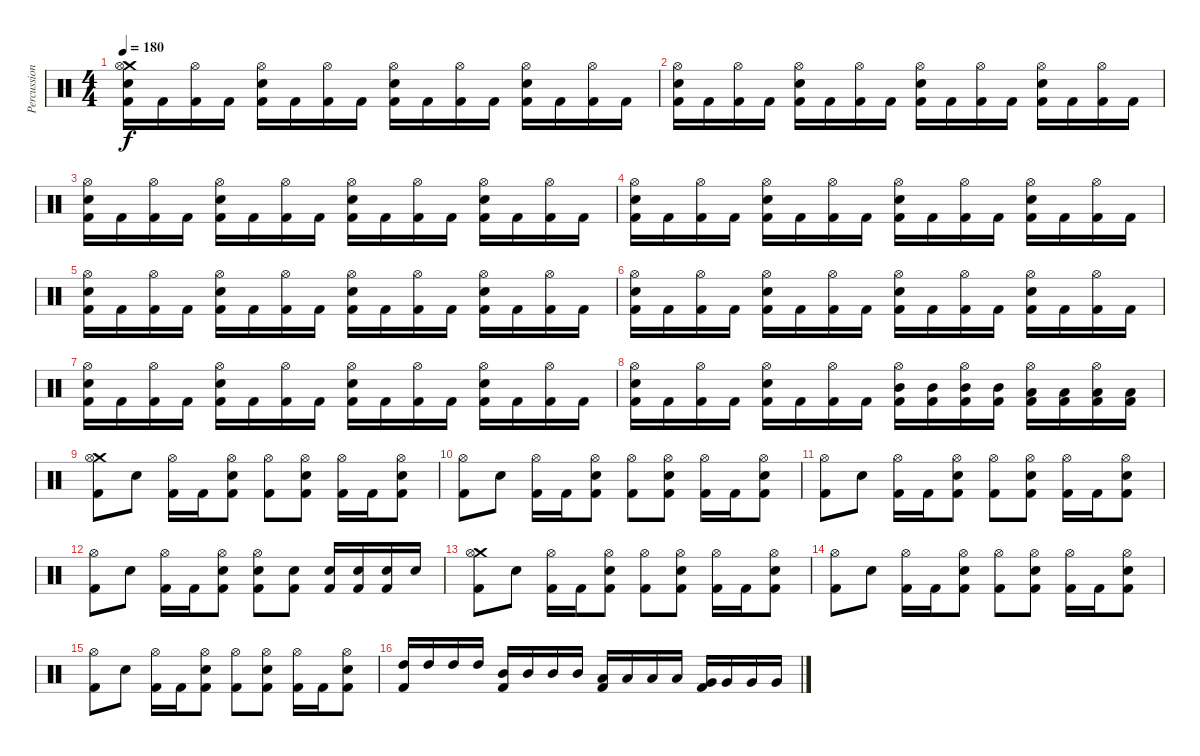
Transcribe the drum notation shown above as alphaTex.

\track ("Percussion" "Percussion") {instrument percussion}
\staff {score}
\articulation defaults
\ts (4 4)
\tempo 180
\clef neutral
\ks c
("Crash medium (hit)" "Hi-Hat (open)" "Snare (hit) 2" "Kick (hit) 2").16{dy f} "Kick (hit) 2".16 ("Hi-Hat (open)" "Kick (hit) 2").16 "Kick (hit) 2".16 ("Hi-Hat (open)" "Snare (hit) 2" "Kick (hit) 2").16 "Kick (hit) 2".16 ("Hi-Hat (open)" "Kick (hit) 2").16 "Kick (hit) 2".16 ("Hi-Hat (open)" "Snare (hit) 2" "Kick (hit) 2").16 "Kick (hit) 2".16 ("Hi-Hat (open)" "Kick (hit) 2").16 "Kick (hit) 2".16 ("Hi-Hat (open)" "Snare (hit) 2" "Kick (hit) 2").16 "Kick (hit) 2".16 ("Hi-Hat (open)" "Kick (hit) 2").16 "Kick (hit) 2".16 |
("Hi-Hat (open)" "Snare (hit) 2" "Kick (hit) 2").16 "Kick (hit) 2".16 ("Hi-Hat (open)" "Kick (hit) 2").16 "Kick (hit) 2".16 ("Hi-Hat (open)" "Snare (hit) 2" "Kick (hit) 2").16 "Kick (hit) 2".16 ("Hi-Hat (open)" "Kick (hit) 2").16 "Kick (hit) 2".16 ("Hi-Hat (open)" "Snare (hit) 2" "Kick (hit) 2").16 "Kick (hit) 2".16 ("Hi-Hat (open)" "Kick (hit) 2").16 "Kick (hit) 2".16 ("Hi-Hat (open)" "Snare (hit) 2" "Kick (hit) 2").16 "Kick (hit) 2".16 ("Hi-Hat (open)" "Kick (hit) 2").16 "Kick (hit) 2".16 |
("Hi-Hat (open)" "Snare (hit) 2" "Kick (hit) 2").16 "Kick (hit) 2".16 ("Hi-Hat (open)" "Kick (hit) 2").16 "Kick (hit) 2".16 ("Hi-Hat (open)" "Snare (hit) 2" "Kick (hit) 2").16 "Kick (hit) 2".16 ("Hi-Hat (open)" "Kick (hit) 2").16 "Kick (hit) 2".16 ("Hi-Hat (open)" "Snare (hit) 2" "Kick (hit) 2").16 "Kick (hit) 2".16 ("Hi-Hat (open)" "Kick (hit) 2").16 "Kick (hit) 2".16 ("Hi-Hat (open)" "Snare (hit) 2" "Kick (hit) 2").16 "Kick (hit) 2".16 ("Hi-Hat (open)" "Kick (hit) 2").16 "Kick (hit) 2".16 |
("Hi-Hat (open)" "Snare (hit) 2" "Kick (hit) 2").16 "Kick (hit) 2".16 ("Hi-Hat (open)" "Kick (hit) 2").16 "Kick (hit) 2".16 ("Hi-Hat (open)" "Snare (hit) 2" "Kick (hit) 2").16 "Kick (hit) 2".16 ("Hi-Hat (open)" "Kick (hit) 2").16 "Kick (hit) 2".16 ("Hi-Hat (open)" "Snare (hit) 2" "Kick (hit) 2").16 "Kick (hit) 2".16 ("Hi-Hat (open)" "Kick (hit) 2").16 "Kick (hit) 2".16 ("Hi-Hat (open)" "Snare (hit) 2" "Kick (hit) 2").16 "Kick (hit) 2".16 ("Hi-Hat (open)" "Kick (hit) 2").16 "Kick (hit) 2".16 |
("Hi-Hat (open)" "Snare (hit) 2" "Kick (hit) 2").16 "Kick (hit) 2".16 ("Hi-Hat (open)" "Kick (hit) 2").16 "Kick (hit) 2".16 ("Hi-Hat (open)" "Snare (hit) 2" "Kick (hit) 2").16 "Kick (hit) 2".16 ("Hi-Hat (open)" "Kick (hit) 2").16 "Kick (hit) 2".16 ("Hi-Hat (open)" "Snare (hit) 2" "Kick (hit) 2").16 "Kick (hit) 2".16 ("Hi-Hat (open)" "Kick (hit) 2").16 "Kick (hit) 2".16 ("Hi-Hat (open)" "Snare (hit) 2" "Kick (hit) 2").16 "Kick (hit) 2".16 ("Hi-Hat (open)" "Kick (hit) 2").16 "Kick (hit) 2".16 |
("Hi-Hat (open)" "Snare (hit) 2" "Kick (hit) 2").16 "Kick (hit) 2".16 ("Hi-Hat (open)" "Kick (hit) 2").16 "Kick (hit) 2".16 ("Hi-Hat (open)" "Snare (hit) 2" "Kick (hit) 2").16 "Kick (hit) 2".16 ("Hi-Hat (open)" "Kick (hit) 2").16 "Kick (hit) 2".16 ("Hi-Hat (open)" "Snare (hit) 2" "Kick (hit) 2").16 "Kick (hit) 2".16 ("Hi-Hat (open)" "Kick (hit) 2").16 "Kick (hit) 2".16 ("Hi-Hat (open)" "Snare (hit) 2" "Kick (hit) 2").16 "Kick (hit) 2".16 ("Hi-Hat (open)" "Kick (hit) 2").16 "Kick (hit) 2".16 |
("Hi-Hat (open)" "Snare (hit) 2" "Kick (hit) 2").16 "Kick (hit) 2".16 ("Hi-Hat (open)" "Kick (hit) 2").16 "Kick (hit) 2".16 ("Hi-Hat (open)" "Snare (hit) 2" "Kick (hit) 2").16 "Kick (hit) 2".16 ("Hi-Hat (open)" "Kick (hit) 2").16 "Kick (hit) 2".16 ("Hi-Hat (open)" "Snare (hit) 2" "Kick (hit) 2").16 "Kick (hit) 2".16 ("Hi-Hat (open)" "Kick (hit) 2").16 "Kick (hit) 2".16 ("Hi-Hat (open)" "Snare (hit) 2" "Kick (hit) 2").16 "Kick (hit) 2".16 ("Hi-Hat (open)" "Kick (hit) 2").16 "Kick (hit) 2".16 |
("Hi-Hat (open)" "Snare (hit) 2" "Kick (hit) 2").16 "Kick (hit) 2".16 ("Hi-Hat (open)" "Kick (hit) 2").16 "Kick (hit) 2".16 ("Hi-Hat (open)" "Snare (hit) 2" "Kick (hit) 2").16 "Kick (hit) 2".16 ("Hi-Hat (open)" "Kick (hit) 2").16 "Kick (hit) 2".16 ("Hi-Hat (open)" "Mid Tom (hit)" "Kick (hit) 2").16 ("Mid Tom (hit)" "Kick (hit) 2").16 ("Hi-Hat (open)" "Mid Tom (hit)" "Kick (hit) 2").16 ("Mid Tom (hit)" "Kick (hit) 2").16 ("Hi-Hat (open)" "Low Tom (hit)" "Kick (hit) 2").16 ("Low Tom (hit)" "Kick (hit) 2").16 ("Hi-Hat (open)" "Low Tom (hit)" "Kick (hit) 2").16 ("Low Tom (hit)" "Kick (hit) 2").16 |
("Crash medium (hit)" "Hi-Hat (open)" "Kick (hit) 2").8 "Snare (hit) 2".8 ("Hi-Hat (open)" "Kick (hit) 2").16 "Kick (hit) 2".16 ("Hi-Hat (open)" "Snare (hit) 2" "Kick (hit) 2").8 ("Hi-Hat (open)" "Kick (hit) 2").8 ("Hi-Hat (open)" "Snare (hit) 2" "Kick (hit) 2").8 ("Hi-Hat (open)" "Kick (hit) 2").16 "Kick (hit) 2".16 ("Hi-Hat (open)" "Snare (hit) 2" "Kick (hit) 2").8 |
("Hi-Hat (open)" "Kick (hit) 2").8 "Snare (hit) 2".8 ("Hi-Hat (open)" "Kick (hit) 2").16 "Kick (hit) 2".16 ("Hi-Hat (open)" "Snare (hit) 2" "Kick (hit) 2").8 ("Hi-Hat (open)" "Kick (hit) 2").8 ("Hi-Hat (open)" "Snare (hit) 2" "Kick (hit) 2").8 ("Hi-Hat (open)" "Kick (hit) 2").16 "Kick (hit) 2".16 ("Hi-Hat (open)" "Snare (hit) 2" "Kick (hit) 2").8 |
("Hi-Hat (open)" "Kick (hit) 2").8 "Snare (hit) 2".8 ("Hi-Hat (open)" "Kick (hit) 2").16 "Kick (hit) 2".16 ("Hi-Hat (open)" "Snare (hit) 2" "Kick (hit) 2").8 ("Hi-Hat (open)" "Kick (hit) 2").8 ("Hi-Hat (open)" "Snare (hit) 2" "Kick (hit) 2").8 ("Hi-Hat (open)" "Kick (hit) 2").16 "Kick (hit) 2".16 ("Hi-Hat (open)" "Snare (hit) 2" "Kick (hit) 2").8 |
("Hi-Hat (open)" "Kick (hit) 2").8 "Snare (hit) 2".8 ("Hi-Hat (open)" "Kick (hit) 2").16 "Kick (hit) 2".16 ("Hi-Hat (open)" "Snare (hit) 2" "Kick (hit) 2").8 ("Hi-Hat (open)" "Snare (hit) 2" "Kick (hit) 2").8 ("Snare (hit) 2" "Kick (hit) 2").8 ("Snare (hit) 2" "Kick (hit) 2").16 ("Snare (hit) 2" "Kick (hit) 2").16 ("Snare (hit) 2" "Kick (hit) 2").16 "Snare (hit) 2".16 |
("Crash medium (hit)" "Hi-Hat (open)" "Kick (hit) 2").8 "Snare (hit) 2".8 ("Hi-Hat (open)" "Kick (hit) 2").16 "Kick (hit) 2".16 ("Hi-Hat (open)" "Snare (hit) 2" "Kick (hit) 2").8 ("Hi-Hat (open)" "Kick (hit) 2").8 ("Hi-Hat (open)" "Snare (hit) 2" "Kick (hit) 2").8 ("Hi-Hat (open)" "Kick (hit) 2").16 "Kick (hit) 2".16 ("Hi-Hat (open)" "Snare (hit) 2" "Kick (hit) 2").8 |
("Hi-Hat (open)" "Kick (hit) 2").8 "Snare (hit) 2".8 ("Hi-Hat (open)" "Kick (hit) 2").16 "Kick (hit) 2".16 ("Hi-Hat (open)" "Snare (hit) 2" "Kick (hit) 2").8 ("Hi-Hat (open)" "Kick (hit) 2").8 ("Hi-Hat (open)" "Snare (hit) 2" "Kick (hit) 2").8 ("Hi-Hat (open)" "Kick (hit) 2").16 "Kick (hit) 2".16 ("Hi-Hat (open)" "Snare (hit) 2" "Kick (hit) 2").8 |
("Hi-Hat (open)" "Kick (hit) 2").8 "Snare (hit) 2".8 ("Hi-Hat (open)" "Kick (hit) 2").16 "Kick (hit) 2".16 ("Hi-Hat (open)" "Snare (hit) 2" "Kick (hit) 2").8 ("Hi-Hat (open)" "Kick (hit) 2").8 ("Hi-Hat (open)" "Snare (hit) 2" "Kick (hit) 2").8 ("Hi-Hat (open)" "Kick (hit) 2").16 "Kick (hit) 2".16 ("Hi-Hat (open)" "Snare (hit) 2" "Kick (hit) 2").8 |
("High Tom (hit)" "Kick (hit) 2").16 "High Tom (hit)".16 "High Tom (hit)".16 "High Tom (hit)".16 ("Mid Tom (hit)" "Kick (hit) 2").16 "Mid Tom (hit)".16 "Mid Tom (hit)".16 "Mid Tom (hit)".16 ("Low Tom (hit)" "Kick (hit) 2").16 "Low Tom (hit)".16 "Low Tom (hit)".16 "Low Tom (hit)".16 ("Very Low Tom (hit)" "Kick (hit) 2").16 "Very Low Tom (hit)".16 "Very Low Tom (hit)".16 "Very Low Tom (hit)".16
